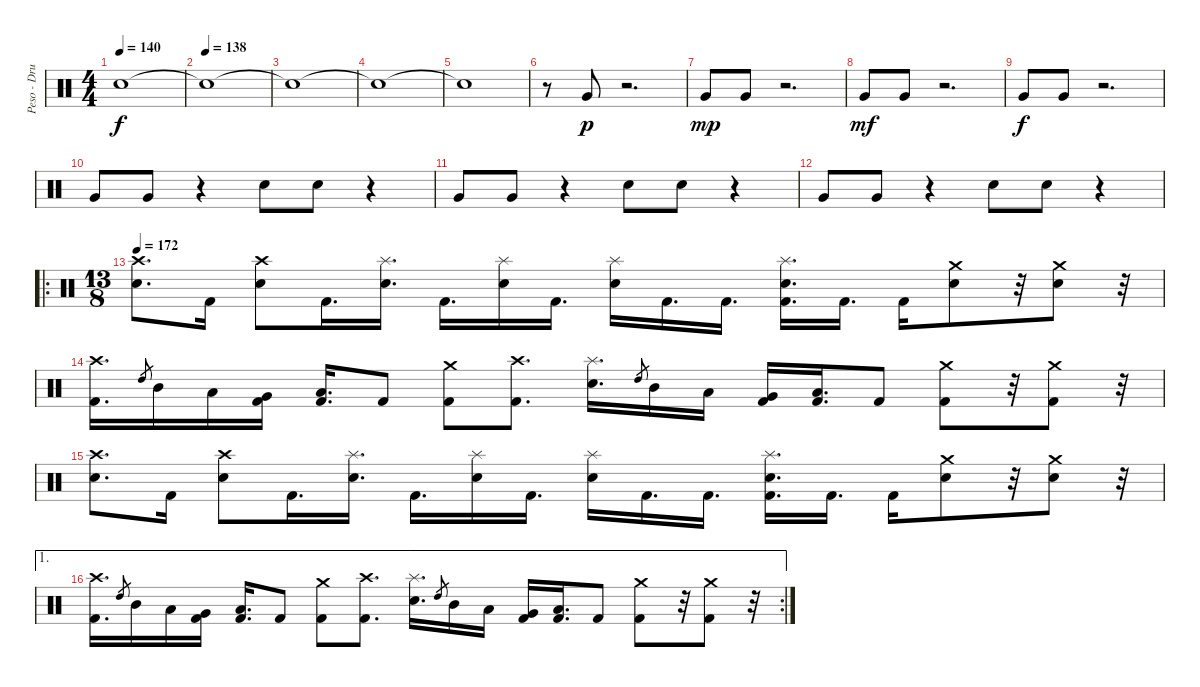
\track ("Peso - Drums" "Peso - Dru") {instrument percussion}
\staff {score}
\articulation defaults
\ts (4 4)
\tempo 140
\clef neutral
\ks c "Snare (hit)"{t}.1{dy f}
|
\tempo (138)
"Snare (hit)"{t}.1 |
"Snare (hit)"{t}.1 |
"Snare (hit)"{t}.1 |
"Snare (hit)"{t}.1 |
r.8 "Very Low Tom (hit)".8{dy p} r.2{d} |
"Very Low Tom (hit)".8{dy mp} "Very Low Tom (hit)".8 r.2{d} |
"Very Low Tom (hit)".8{dy mf} "Very Low Tom (hit)".8 r.2{d} |
"Very Low Tom (hit)".8{dy f} "Very Low Tom (hit)".8 r.2{d} |
"Very Low Tom (hit)".8 "Very Low Tom (hit)".8 r.4 "Electric Snare (hit)".8 "Electric Snare (hit)".8 r.4 |
"Very Low Tom (hit)".8 "Very Low Tom (hit)".8 r.4 "Electric Snare (hit)".8 "Electric Snare (hit)".8 r.4 |
"Very Low Tom (hit)".8 "Very Low Tom (hit)".8 r.4 "Electric Snare (hit)".8 "Electric Snare (hit)".8 r.4 |
\ro
\ts (13 8)
\tempo 172
("Crash high (hit)" "Electric Snare (hit)").8{d} "Kick (hit) 2".16 ("Crash high (hit)" "Electric Snare (hit)").8 "Kick (hit) 2".16{d} ("Splash (hit)" "Electric Snare (hit)").16{d} "Kick (hit) 2".16{d} ("Splash (hit)" "Electric Snare (hit)").16 "Kick (hit) 2".16{d} ("Splash (hit)" "Electric Snare (hit)").16 "Kick (hit) 2".16{d} "Kick (hit) 2".16{d} ("Splash (hit)" "Electric Snare (hit)" "Kick (hit) 2").16{d} "Kick (hit) 2".16{d} "Kick (hit) 2".16 ("Crash medium (hit)" "Electric Snare (hit)").8 r.32 ("Crash medium (hit)" "Electric Snare (hit)").8 r.32 |
("Crash high (hit)" "Kick (hit) 2").16{d} "High Tom (hit)".8{gr} "Mid Tom (hit)".16 "Low Tom (hit)".16 ("Very Low Tom (hit)" "Kick (hit) 2").16 ("Low Floor Tom (hit)" "Kick (hit) 2").16{d} "Kick (hit) 2".8 ("Crash medium (hit)" "Kick (hit) 2").8 ("Crash high (hit)" "Kick (hit) 2").8{d} ("Splash (hit)" "Electric Snare (hit)").16{d} "High Tom (hit)".8{gr} "Mid Tom (hit)".16 "Low Tom (hit)".16 ("Very Low Tom (hit)" "Kick (hit) 2").16 ("Low Floor Tom (hit)" "Kick (hit) 2").16{d} "Kick (hit) 2".8 ("Crash medium (hit)" "Kick (hit) 2").8 r.32 ("Crash medium (hit)" "Kick (hit) 2").8 r.32 |
("Crash high (hit)" "Electric Snare (hit)").8{d} "Kick (hit) 2".16 ("Crash high (hit)" "Electric Snare (hit)").8 "Kick (hit) 2".16{d} ("Splash (hit)" "Electric Snare (hit)").16{d} "Kick (hit) 2".16{d} ("Splash (hit)" "Electric Snare (hit)").16 "Kick (hit) 2".16{d} ("Splash (hit)" "Electric Snare (hit)").16 "Kick (hit) 2".16{d} "Kick (hit) 2".16{d} ("Splash (hit)" "Electric Snare (hit)" "Kick (hit) 2").16{d} "Kick (hit) 2".16{d} "Kick (hit) 2".16 ("Crash medium (hit)" "Electric Snare (hit)").8 r.32 ("Crash medium (hit)" "Electric Snare (hit)").8 r.32 |
\ae 1
\rc 2
("Crash high (hit)" "Kick (hit) 2").16{d} "High Tom (hit)".8{gr} "Mid Tom (hit)".16 "Low Tom (hit)".16 ("Very Low Tom (hit)" "Kick (hit) 2").16 ("Low Floor Tom (hit)" "Kick (hit) 2").16{d} "Kick (hit) 2".8 ("Crash medium (hit)" "Kick (hit) 2").8 ("Crash high (hit)" "Kick (hit) 2").8{d} ("Splash (hit)" "Electric Snare (hit)").16{d} "High Tom (hit)".8{gr} "Mid Tom (hit)".16 "Low Tom (hit)".16 ("Very Low Tom (hit)" "Kick (hit) 2").16 ("Low Floor Tom (hit)" "Kick (hit) 2").16{d} "Kick (hit) 2".8 ("Crash medium (hit)" "Kick (hit) 2").8 r.32 ("Crash medium (hit)" "Kick (hit) 2").8 r.32
